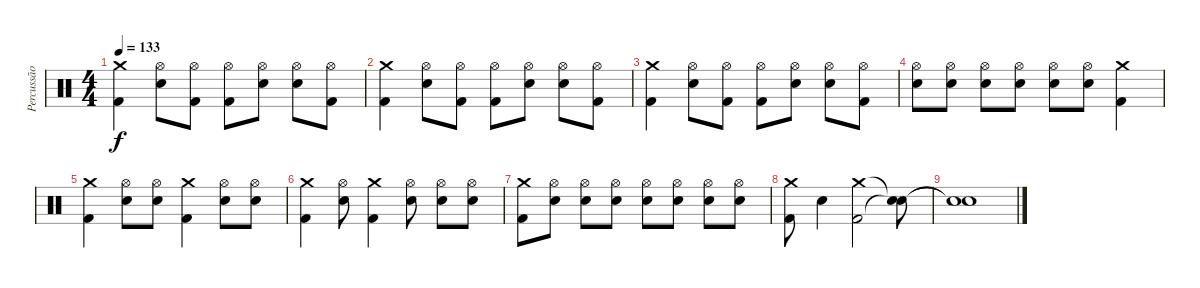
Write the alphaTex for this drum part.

\track ("Percussão" "Percussão") {instrument percussion}
\staff {score}
\articulation defaults
\ts (4 4)
\tempo 133
\clef neutral
\ks c
("Crash medium (hit)" "Kick (hit) 2").4{dy f} ("Electric Snare (hit)" "Hi-Hat (open)").8 ("Kick (hit) 2" "Hi-Hat (open)").8 ("Kick (hit) 2" "Hi-Hat (open)").8 ("Electric Snare (hit)" "Hi-Hat (open)").8 ("Electric Snare (hit)" "Hi-Hat (open)").8 ("Kick (hit) 2" "Hi-Hat (open)").8 |
("Crash medium (hit)" "Kick (hit) 2").4 ("Electric Snare (hit)" "Hi-Hat (open)").8 ("Kick (hit) 2" "Hi-Hat (open)").8 ("Kick (hit) 2" "Hi-Hat (open)").8 ("Electric Snare (hit)" "Hi-Hat (open)").8 ("Electric Snare (hit)" "Hi-Hat (open)").8 ("Kick (hit) 2" "Hi-Hat (open)").8 |
("Crash medium (hit)" "Kick (hit) 2").4 ("Electric Snare (hit)" "Hi-Hat (open)").8 ("Kick (hit) 2" "Hi-Hat (open)").8 ("Kick (hit) 2" "Hi-Hat (open)").8 ("Electric Snare (hit)" "Hi-Hat (open)").8 ("Electric Snare (hit)" "Hi-Hat (open)").8 ("Kick (hit) 2" "Hi-Hat (open)").8 |
("Electric Snare (hit)" "Hi-Hat (open)").8 ("Electric Snare (hit)" "Hi-Hat (open)").8 ("Electric Snare (hit)" "Hi-Hat (open)").8 ("Electric Snare (hit)" "Hi-Hat (open)").8 ("Electric Snare (hit)" "Hi-Hat (open)").8 ("Electric Snare (hit)" "Hi-Hat (open)").8 ("Crash medium (hit)" "Kick (hit) 2").4 |
("Crash medium (hit)" "Kick (hit) 2").4 ("Electric Snare (hit)" "Hi-Hat (open)").8 ("Electric Snare (hit)" "Hi-Hat (open)").8 ("Crash medium (hit)" "Kick (hit) 2").4 ("Electric Snare (hit)" "Hi-Hat (open)").8 ("Electric Snare (hit)" "Hi-Hat (open)").8 |
("Crash medium (hit)" "Kick (hit) 2").4 ("Electric Snare (hit)" "Hi-Hat (open)").8 ("Crash medium (hit)" "Kick (hit) 2").4 ("Electric Snare (hit)" "Hi-Hat (open)").8 ("Electric Snare (hit)" "Hi-Hat (open)").8 ("Electric Snare (hit)" "Hi-Hat (open)").8 |
("Crash medium (hit)" "Kick (hit) 2").8 ("Electric Snare (hit)" "Hi-Hat (open)").8 ("Electric Snare (hit)" "Hi-Hat (open)").8 ("Electric Snare (hit)" "Hi-Hat (open)").8 ("Electric Snare (hit)" "Hi-Hat (open)").8 ("Electric Snare (hit)" "Hi-Hat (open)").8 ("Electric Snare (hit)" "Hi-Hat (open)").8 ("Electric Snare (hit)" "Hi-Hat (open)").8 |
("Crash medium (hit)" "Kick (hit) 2").8 "Electric Snare (hit)".4 ("Crash medium (hit)" "Kick (hit) 2").2 ("Snare (hit)"{t} "Snare (hit)"{t}).8 |
("Snare (hit)"{t} "Snare (hit)"{t}).1
